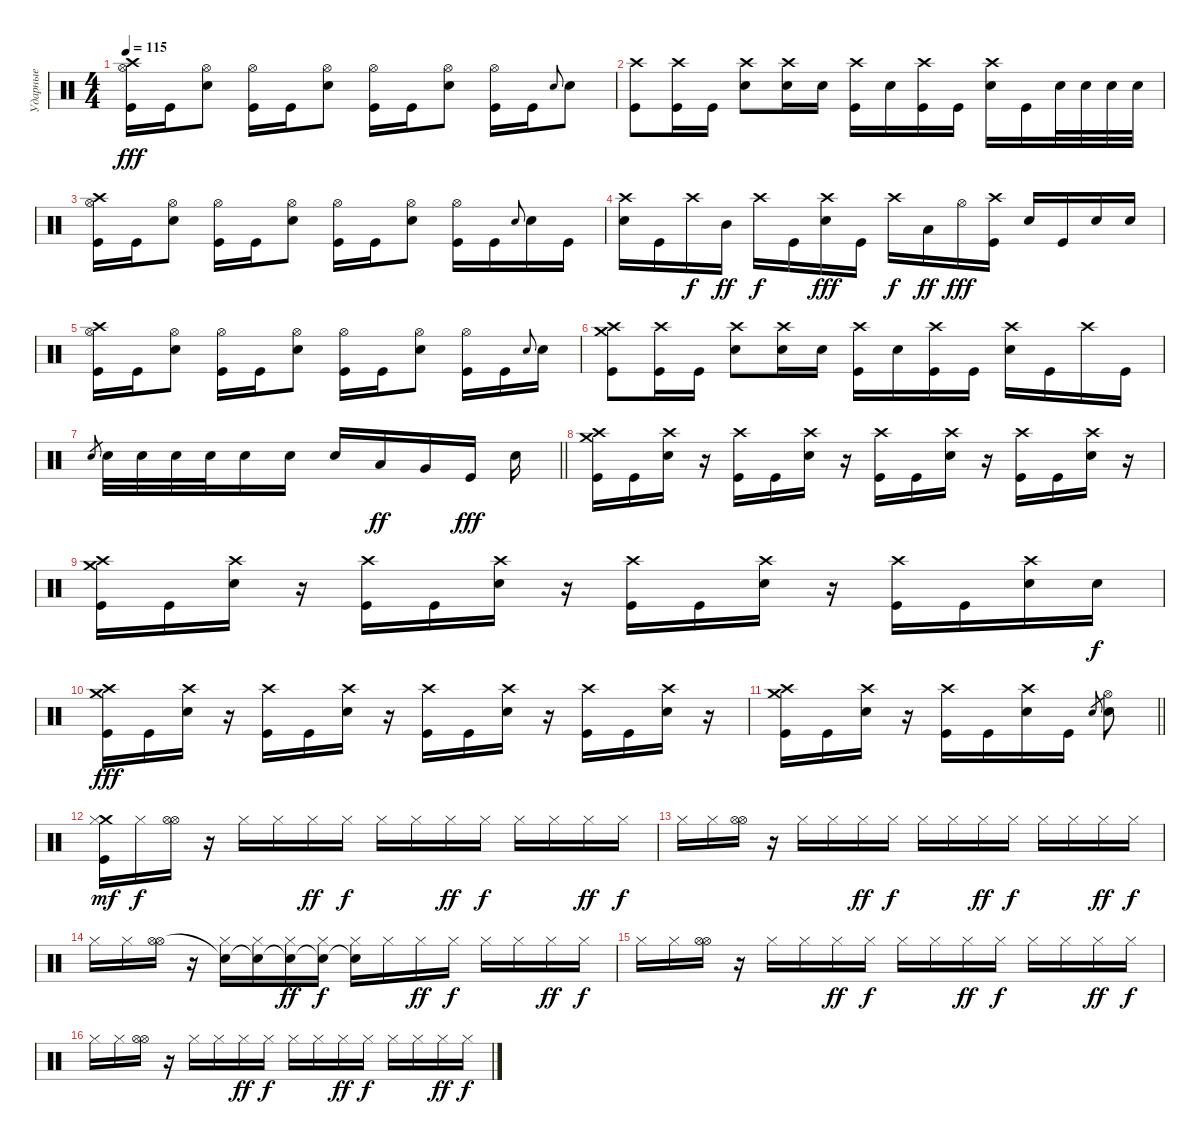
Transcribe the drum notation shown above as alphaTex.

\track ("Ударные" "Ударные") {instrument percussion}
\staff {score}
\articulation defaults
\ts (4 4)
\tempo 115
\clef neutral
\ks c
("Hi-Hat (open)" "Crash high (hit)" "Kick (hit)").16{dy fff} "Kick (hit)".16 ("Hi-Hat (open)" "Electric Snare (hit)").8 ("Hi-Hat (open)" "Kick (hit)").16 "Kick (hit)".16 ("Hi-Hat (open)" "Electric Snare (hit)").8 ("Hi-Hat (open)" "Kick (hit)").16 "Kick (hit)".16 ("Hi-Hat (open)" "Electric Snare (hit)").8 ("Hi-Hat (open)" "Kick (hit)").16 "Kick (hit)".16 "Electric Snare (hit)".8{gr onbeat} "Electric Snare (hit)".8 |
("Crash high (hit)" "Kick (hit)").8 ("Crash high (hit)" "Kick (hit)").16 "Kick (hit)".16 ("Crash high (hit)" "Electric Snare (hit)").8 ("Crash high (hit)" "Electric Snare (hit)").16 "Electric Snare (hit)".16 ("Crash high (hit)" "Kick (hit)").16 "Electric Snare (hit)".16 ("Crash high (hit)" "Kick (hit)").16 "Kick (hit)".16 ("Crash high (hit)" "Electric Snare (hit)").16 "Kick (hit)".16 "Electric Snare (hit)".32 "Electric Snare (hit)".32 "Electric Snare (hit)".32 "Electric Snare (hit)".32 |
("Hi-Hat (open)" "Crash high (hit)" "Kick (hit)").16 "Kick (hit)".16 ("Hi-Hat (open)" "Electric Snare (hit)").8 ("Hi-Hat (open)" "Kick (hit)").16 "Kick (hit)".16 ("Hi-Hat (open)" "Electric Snare (hit)").8 ("Hi-Hat (open)" "Kick (hit)").16 "Kick (hit)".16 ("Hi-Hat (open)" "Electric Snare (hit)").8 ("Hi-Hat (open)" "Kick (hit)").16 "Kick (hit)".16 "Electric Snare (hit)".8{gr onbeat} "Electric Snare (hit)".16 "Kick (hit)".16 |
("Crash high (hit)" "Electric Snare (hit)").16 "Kick (hit)".16 "Crash high (hit)".16{dy f} "Mid Tom (hit)".16{dy ff} "Crash high (hit)".16{dy f} "Kick (hit)".16 ("Crash high (hit)" "Electric Snare (hit)").16{dy fff} "Kick (hit)".16 "Crash high (hit)".16{dy f} "Low Tom (hit)".16{dy ff} "Hi-Hat (open)".16{dy fff} ("Crash high (hit)" "Kick (hit)").16 "Electric Snare (hit)".16 "Kick (hit)".16 "Electric Snare (hit)".16 "Electric Snare (hit)".16 |
("Hi-Hat (open)" "Crash high (hit)" "Kick (hit)").16 "Kick (hit)".16 ("Hi-Hat (open)" "Electric Snare (hit)").8 ("Hi-Hat (open)" "Kick (hit)").16 "Kick (hit)".16 ("Hi-Hat (open)" "Electric Snare (hit)").8 ("Hi-Hat (open)" "Kick (hit)").16 "Kick (hit)".16 ("Hi-Hat (open)" "Electric Snare (hit)").8 ("Hi-Hat (open)" "Kick (hit)").16 "Kick (hit)".16 "Electric Snare (hit)".8{gr onbeat} "Electric Snare (hit)".16 |
("Crash medium (hit)" "Crash high (hit)" "Kick (hit)").8 ("Crash high (hit)" "Kick (hit)").16 "Kick (hit)".16 ("Crash high (hit)" "Electric Snare (hit)").8 ("Crash high (hit)" "Electric Snare (hit)").16 "Electric Snare (hit)".16 ("Crash high (hit)" "Kick (hit)").16 "Electric Snare (hit)".16 ("Crash high (hit)" "Kick (hit)").16 "Kick (hit)".16 ("Crash high (hit)" "Electric Snare (hit)").16 "Kick (hit)".16 "Crash high (hit)".16 "Kick (hit)".16 |
\barLineRight lightlight "Electric Snare (hit)".8{gr} "Electric Snare (hit)".32 "Electric Snare (hit)".32 "Electric Snare (hit)".32 "Electric Snare (hit)".32 "Electric Snare (hit)".16 "Electric Snare (hit)".16 "Electric Snare (hit)".16 "Low Tom (hit)".16{dy ff} "Very Low Tom (hit)".16 "Kick (hit)".16{dy fff} "Electric Snare (hit)".16
|
("Crash medium (hit)" "Crash high (hit)" "Kick (hit)").16 "Kick (hit)".16 ("Crash high (hit)" "Electric Snare (hit)").16 r.16 ("Crash high (hit)" "Kick (hit)").16 "Kick (hit)".16 ("Crash high (hit)" "Electric Snare (hit)").16 r.16 ("Crash high (hit)" "Kick (hit)").16 "Kick (hit)".16 ("Crash high (hit)" "Electric Snare (hit)").16 r.16 ("Crash high (hit)" "Kick (hit)").16 "Kick (hit)".16 ("Crash high (hit)" "Electric Snare (hit)").16 r.16 |
("Crash medium (hit)" "Crash high (hit)" "Kick (hit)").16 "Kick (hit)".16 ("Crash high (hit)" "Electric Snare (hit)").16 r.16 ("Crash high (hit)" "Kick (hit)").16 "Kick (hit)".16 ("Crash high (hit)" "Electric Snare (hit)").16 r.16 ("Crash high (hit)" "Kick (hit)").16 "Kick (hit)".16 ("Crash high (hit)" "Electric Snare (hit)").16 r.16 ("Crash high (hit)" "Kick (hit)").16 "Kick (hit)".16 ("Crash high (hit)" "Electric Snare (hit)").16 "Electric Snare (hit)".16{dy f} |
("Crash medium (hit)" "Crash high (hit)" "Kick (hit)").16{dy fff} "Kick (hit)".16 ("Crash high (hit)" "Electric Snare (hit)").16 r.16 ("Crash high (hit)" "Kick (hit)").16 "Kick (hit)".16 ("Crash high (hit)" "Electric Snare (hit)").16 r.16 ("Crash high (hit)" "Kick (hit)").16 "Kick (hit)".16 ("Crash high (hit)" "Electric Snare (hit)").16 r.16 ("Crash high (hit)" "Kick (hit)").16 "Kick (hit)".16 ("Crash high (hit)" "Electric Snare (hit)").16 r.16 |
\barLineRight lightlight
("Crash medium (hit)" "Crash high (hit)" "Kick (hit)").16 "Kick (hit)".16 ("Crash high (hit)" "Electric Snare (hit)").16 r.16 ("Crash high (hit)" "Kick (hit)").16 "Kick (hit)".16 ("Crash high (hit)" "Electric Snare (hit)").16 "Kick (hit)".16 "Electric Snare (hit)".8{gr} ("Hi-Hat (open)" "Electric Snare (hit)").8 |
("Crash medium (hit)" "Hi-Hat (closed)" "Kick (hit)").16{dy mf} "Hi-Hat (closed)".16{dy f} ("Hi-Hat (open)" "Hi-Hat (open)").16 r.16 "Hi-Hat (closed)".16 "Hi-Hat (closed)".16 "Hi-Hat (closed)".16{dy ff} "Hi-Hat (closed)".16{dy f} "Hi-Hat (closed)".16 "Hi-Hat (closed)".16 "Hi-Hat (closed)".16{dy ff} "Hi-Hat (closed)".16{dy f} "Hi-Hat (closed)".16 "Hi-Hat (closed)".16 "Hi-Hat (closed)".16{dy ff} "Hi-Hat (closed)".16{dy f} |
"Hi-Hat (closed)".16 "Hi-Hat (closed)".16 ("Hi-Hat (open)" "Hi-Hat (open)").16 r.16 "Hi-Hat (closed)".16 "Hi-Hat (closed)".16 "Hi-Hat (closed)".16{dy ff} "Hi-Hat (closed)".16{dy f} "Hi-Hat (closed)".16 "Hi-Hat (closed)".16 "Hi-Hat (closed)".16{dy ff} "Hi-Hat (closed)".16{dy f} "Hi-Hat (closed)".16 "Hi-Hat (closed)".16 "Hi-Hat (closed)".16{dy ff} "Hi-Hat (closed)".16{dy f} |
"Hi-Hat (closed)".16 "Hi-Hat (closed)".16 ("Hi-Hat (open)" "Hi-Hat (open)").16 r.16 ("Snare (hit)"{t} "Hi-Hat (closed)").16 ("Snare (hit)"{t} "Hi-Hat (closed)").16 ("Snare (hit)"{t} "Hi-Hat (closed)").16{dy ff} ("Snare (hit)"{t} "Hi-Hat (closed)").16{dy f} ("Snare (hit)"{t} "Hi-Hat (closed)").16 "Hi-Hat (closed)".16 "Hi-Hat (closed)".16{dy ff} "Hi-Hat (closed)".16{dy f} "Hi-Hat (closed)".16 "Hi-Hat (closed)".16 "Hi-Hat (closed)".16{dy ff} "Hi-Hat (closed)".16{dy f} |
"Hi-Hat (closed)".16 "Hi-Hat (closed)".16 ("Hi-Hat (open)" "Hi-Hat (open)").16 r.16 "Hi-Hat (closed)".16 "Hi-Hat (closed)".16 "Hi-Hat (closed)".16{dy ff} "Hi-Hat (closed)".16{dy f} "Hi-Hat (closed)".16 "Hi-Hat (closed)".16 "Hi-Hat (closed)".16{dy ff} "Hi-Hat (closed)".16{dy f} "Hi-Hat (closed)".16 "Hi-Hat (closed)".16 "Hi-Hat (closed)".16{dy ff} "Hi-Hat (closed)".16{dy f} |
"Hi-Hat (closed)".16 "Hi-Hat (closed)".16 ("Hi-Hat (open)" "Hi-Hat (open)").16 r.16 "Hi-Hat (closed)".16 "Hi-Hat (closed)".16 "Hi-Hat (closed)".16{dy ff} "Hi-Hat (closed)".16{dy f} "Hi-Hat (closed)".16 "Hi-Hat (closed)".16 "Hi-Hat (closed)".16{dy ff} "Hi-Hat (closed)".16{dy f} "Hi-Hat (closed)".16 "Hi-Hat (closed)".16 "Hi-Hat (closed)".16{dy ff} "Hi-Hat (closed)".16{dy f}
